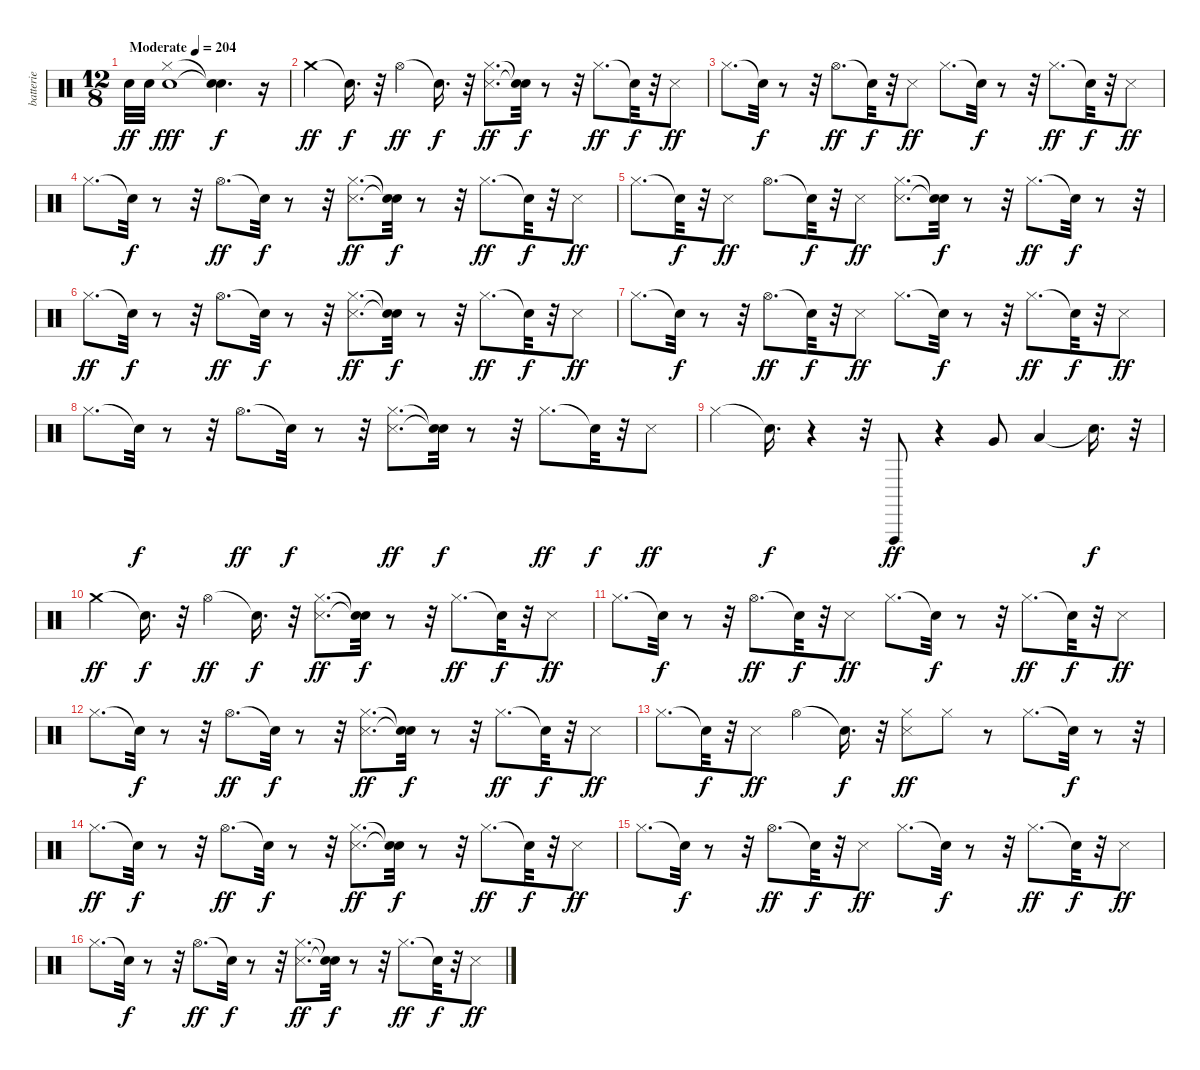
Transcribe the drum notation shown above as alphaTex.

\track ("batterie" "batterie") {instrument percussion}
\staff {score}
\articulation defaults
\ts (12 8)
\tempo (204 "Moderate")
\clef neutral
\ks c "Electric Snare (hit)".32{dy ff} "Electric Snare (hit)".32
("Electric Snare (hit)" "Hi-Hat (closed)").1{dy fff} ("Snare (hit)"{t} "Snare (hit)"{t}).4{d dy f} r.16 |
"Crash medium (hit)".4{dy ff} "Snare (hit)"{t}.16{d dy f} r.32 "Hi-Hat (open)".4{dy ff} "Snare (hit)"{t}.16{d dy f} r.32 ("Snare (side stick) 3" "Hi-Hat (closed)").8{d dy ff} ("Snare (hit)"{t} "Snare (hit)"{t}).32{dy f} r.8 r.32 "Hi-Hat (closed)".8{d dy ff} "Snare (hit)"{t}.32{dy f} r.32 "Snare (side stick) 3".8{dy ff} |
"Hi-Hat (closed)".8{d} "Snare (hit)"{t}.32{dy f} r.8 r.32 "Hi-Hat (open)".8{d dy ff} "Snare (hit)"{t}.32{dy f} r.32 "Snare (side stick) 3".8{dy ff} "Hi-Hat (closed)".8{d} "Snare (hit)"{t}.32{dy f} r.8 r.32 "Hi-Hat (closed)".8{d dy ff} "Snare (hit)"{t}.32{dy f} r.32 "Snare (side stick) 3".8{dy ff} |
"Hi-Hat (closed)".8{d} "Snare (hit)"{t}.32{dy f} r.8 r.32 "Hi-Hat (open)".8{d dy ff} "Snare (hit)"{t}.32{dy f} r.8 r.32 ("Snare (side stick) 3" "Hi-Hat (closed)").8{d dy ff} ("Snare (hit)"{t} "Snare (hit)"{t}).32{dy f} r.8 r.32 "Hi-Hat (closed)".8{d dy ff} "Snare (hit)"{t}.32{dy f} r.32 "Snare (side stick) 3".8{dy ff} |
"Hi-Hat (closed)".8{d} "Snare (hit)"{t}.32{dy f} r.32 "Snare (side stick) 3".8{dy ff} "Hi-Hat (open)".8{d} "Snare (hit)"{t}.32{dy f} r.32 "Snare (side stick) 3".8{dy ff} ("Snare (side stick) 3" "Hi-Hat (closed)").8{d} ("Snare (hit)"{t} "Snare (hit)"{t}).32{dy f} r.8 r.32 "Hi-Hat (closed)".8{d dy ff} "Snare (hit)"{t}.32{dy f} r.8 r.32 |
"Hi-Hat (closed)".8{d dy ff} "Snare (hit)"{t}.32{dy f} r.8 r.32 "Hi-Hat (open)".8{d dy ff} "Snare (hit)"{t}.32{dy f} r.8 r.32 ("Snare (side stick) 3" "Hi-Hat (closed)").8{d dy ff} ("Snare (hit)"{t} "Snare (hit)"{t}).32{dy f} r.8 r.32 "Hi-Hat (closed)".8{d dy ff} "Snare (hit)"{t}.32{dy f} r.32 "Snare (side stick) 3".8{dy ff} |
"Hi-Hat (closed)".8{d} "Snare (hit)"{t}.32{dy f} r.8 r.32 "Hi-Hat (open)".8{d dy ff} "Snare (hit)"{t}.32{dy f} r.32 "Snare (side stick) 3".8{dy ff} "Hi-Hat (closed)".8{d} "Snare (hit)"{t}.32{dy f} r.8 r.32 "Hi-Hat (closed)".8{d dy ff} "Snare (hit)"{t}.32{dy f} r.32 "Snare (side stick) 3".8{dy ff} |
"Hi-Hat (closed)".8{d} "Snare (hit)"{t}.32{dy f} r.8 r.32 "Hi-Hat (open)".8{d dy ff} "Snare (hit)"{t}.32{dy f} r.8 r.32 ("Snare (side stick) 3" "Hi-Hat (closed)").8{d dy ff} ("Snare (hit)"{t} "Snare (hit)"{t}).32{dy f} r.8 r.32 "Hi-Hat (closed)".8{d dy ff} "Snare (hit)"{t}.32{dy f} r.32 "Snare (side stick) 3".8{dy ff} |
"Hi-Hat (closed)".4 "Snare (hit)"{t}.16{d dy f} r.4 r.32 "Vibraslap (hit)".8{dy ff} r.4 "Very Low Tom (hit)".8 "Low Floor Tom (hit)".4 "Snare (hit)"{t}.16{d dy f} r.32 |
"Crash medium (hit)".4{dy ff} "Snare (hit)"{t}.16{d dy f} r.32 "Hi-Hat (open)".4{dy ff} "Snare (hit)"{t}.16{d dy f} r.32 ("Snare (side stick) 3" "Hi-Hat (closed)").8{d dy ff} ("Snare (hit)"{t} "Snare (hit)"{t}).32{dy f} r.8 r.32 "Hi-Hat (closed)".8{d dy ff} "Snare (hit)"{t}.32{dy f} r.32 "Snare (side stick) 3".8{dy ff} |
"Hi-Hat (closed)".8{d} "Snare (hit)"{t}.32{dy f} r.8 r.32 "Hi-Hat (open)".8{d dy ff} "Snare (hit)"{t}.32{dy f} r.32 "Snare (side stick) 3".8{dy ff} "Hi-Hat (closed)".8{d} "Snare (hit)"{t}.32{dy f} r.8 r.32 "Hi-Hat (closed)".8{d dy ff} "Snare (hit)"{t}.32{dy f} r.32 "Snare (side stick) 3".8{dy ff} |
"Hi-Hat (closed)".8{d} "Snare (hit)"{t}.32{dy f} r.8 r.32 "Hi-Hat (open)".8{d dy ff} "Snare (hit)"{t}.32{dy f} r.8 r.32 ("Snare (side stick) 3" "Hi-Hat (closed)").8{d dy ff} ("Snare (hit)"{t} "Snare (hit)"{t}).32{dy f} r.8 r.32 "Hi-Hat (closed)".8{d dy ff} "Snare (hit)"{t}.32{dy f} r.32 "Snare (side stick) 3".8{dy ff} |
"Hi-Hat (closed)".8{d} "Snare (hit)"{t}.32{dy f} r.32 "Snare (side stick) 3".8{dy ff} "Hi-Hat (open)".4 "Snare (hit)"{t}.16{d dy f} r.32 ("Snare (side stick) 3" "Hi-Hat (closed)").8{dy ff} "Hi-Hat (closed)".8 r.8 "Hi-Hat (closed)".8{d} "Snare (hit)"{t}.32{dy f} r.8 r.32 |
"Hi-Hat (closed)".8{d dy ff} "Snare (hit)"{t}.32{dy f} r.8 r.32 "Hi-Hat (open)".8{d dy ff} "Snare (hit)"{t}.32{dy f} r.8 r.32 ("Snare (side stick) 3" "Hi-Hat (closed)").8{d dy ff} ("Snare (hit)"{t} "Snare (hit)"{t}).32{dy f} r.8 r.32 "Hi-Hat (closed)".8{d dy ff} "Snare (hit)"{t}.32{dy f} r.32 "Snare (side stick) 3".8{dy ff} |
"Hi-Hat (closed)".8{d} "Snare (hit)"{t}.32{dy f} r.8 r.32 "Hi-Hat (open)".8{d dy ff} "Snare (hit)"{t}.32{dy f} r.32 "Snare (side stick) 3".8{dy ff} "Hi-Hat (closed)".8{d} "Snare (hit)"{t}.32{dy f} r.8 r.32 "Hi-Hat (closed)".8{d dy ff} "Snare (hit)"{t}.32{dy f} r.32 "Snare (side stick) 3".8{dy ff} |
"Hi-Hat (closed)".8{d} "Snare (hit)"{t}.32{dy f} r.8 r.32 "Hi-Hat (open)".8{d dy ff} "Snare (hit)"{t}.32{dy f} r.8 r.32 ("Snare (side stick) 3" "Hi-Hat (closed)").8{d dy ff} ("Snare (hit)"{t} "Snare (hit)"{t}).32{dy f} r.8 r.32 "Hi-Hat (closed)".8{d dy ff} "Snare (hit)"{t}.32{dy f} r.32 "Snare (side stick) 3".8{dy ff}
